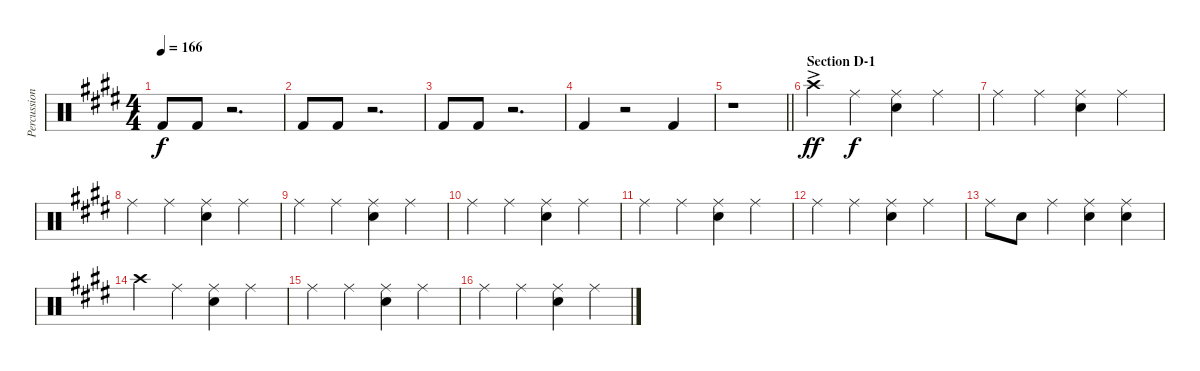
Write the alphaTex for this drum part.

\track ("Percussion - Other" "Percussion") {instrument percussion}
\staff {score}
\articulation defaults
\ts (4 4)
\tempo 166
\clef neutral
\ks e "Kick (hit) 2".8{dy f} "Kick (hit) 2".8
r.2{d} |
"Kick (hit) 2".8 "Kick (hit) 2".8 r.2{d} |
"Kick (hit) 2".8 "Kick (hit) 2".8 r.2{d} |
"Kick (hit) 2".4 r.2 "Kick (hit) 2".4 |
\barLineRight lightlight
r.1 |
\section ("" "Section D-1")
"Crash high (hit)"{ac}.4{dy ff} "Ride (middle)".4{dy f} ("Ride (middle)" "Snare (hit) 2").4 "Ride (middle)".4 |
"Ride (middle)".4 "Ride (middle)".4 ("Ride (middle)" "Snare (hit) 2").4 "Ride (middle)".4 |
"Ride (middle)".4 "Ride (middle)".4 ("Ride (middle)" "Snare (hit) 2").4 "Ride (middle)".4 |
"Ride (middle)".4 "Ride (middle)".4 ("Ride (middle)" "Snare (hit) 2").4 "Ride (middle)".4 |
"Ride (middle)".4 "Ride (middle)".4 ("Ride (middle)" "Snare (hit) 2").4 "Ride (middle)".4 |
"Ride (middle)".4 "Ride (middle)".4 ("Ride (middle)" "Snare (hit) 2").4 "Ride (middle)".4 |
"Ride (middle)".4 "Ride (middle)".4 ("Ride (middle)" "Snare (hit) 2").4 "Ride (middle)".4 |
"Ride (middle)".8 "Snare (hit) 2".8 "Ride (middle)".4 ("Ride (middle)" "Snare (hit) 2").4 ("Ride (middle)" "Snare (hit) 2").4 |
"Crash high (hit)".4 "Ride (middle)".4 ("Ride (middle)" "Snare (hit) 2").4 "Ride (middle)".4 |
"Ride (middle)".4 "Ride (middle)".4 ("Ride (middle)" "Snare (hit) 2").4 "Ride (middle)".4 |
"Ride (middle)".4 "Ride (middle)".4 ("Ride (middle)" "Snare (hit) 2").4 "Ride (middle)".4
